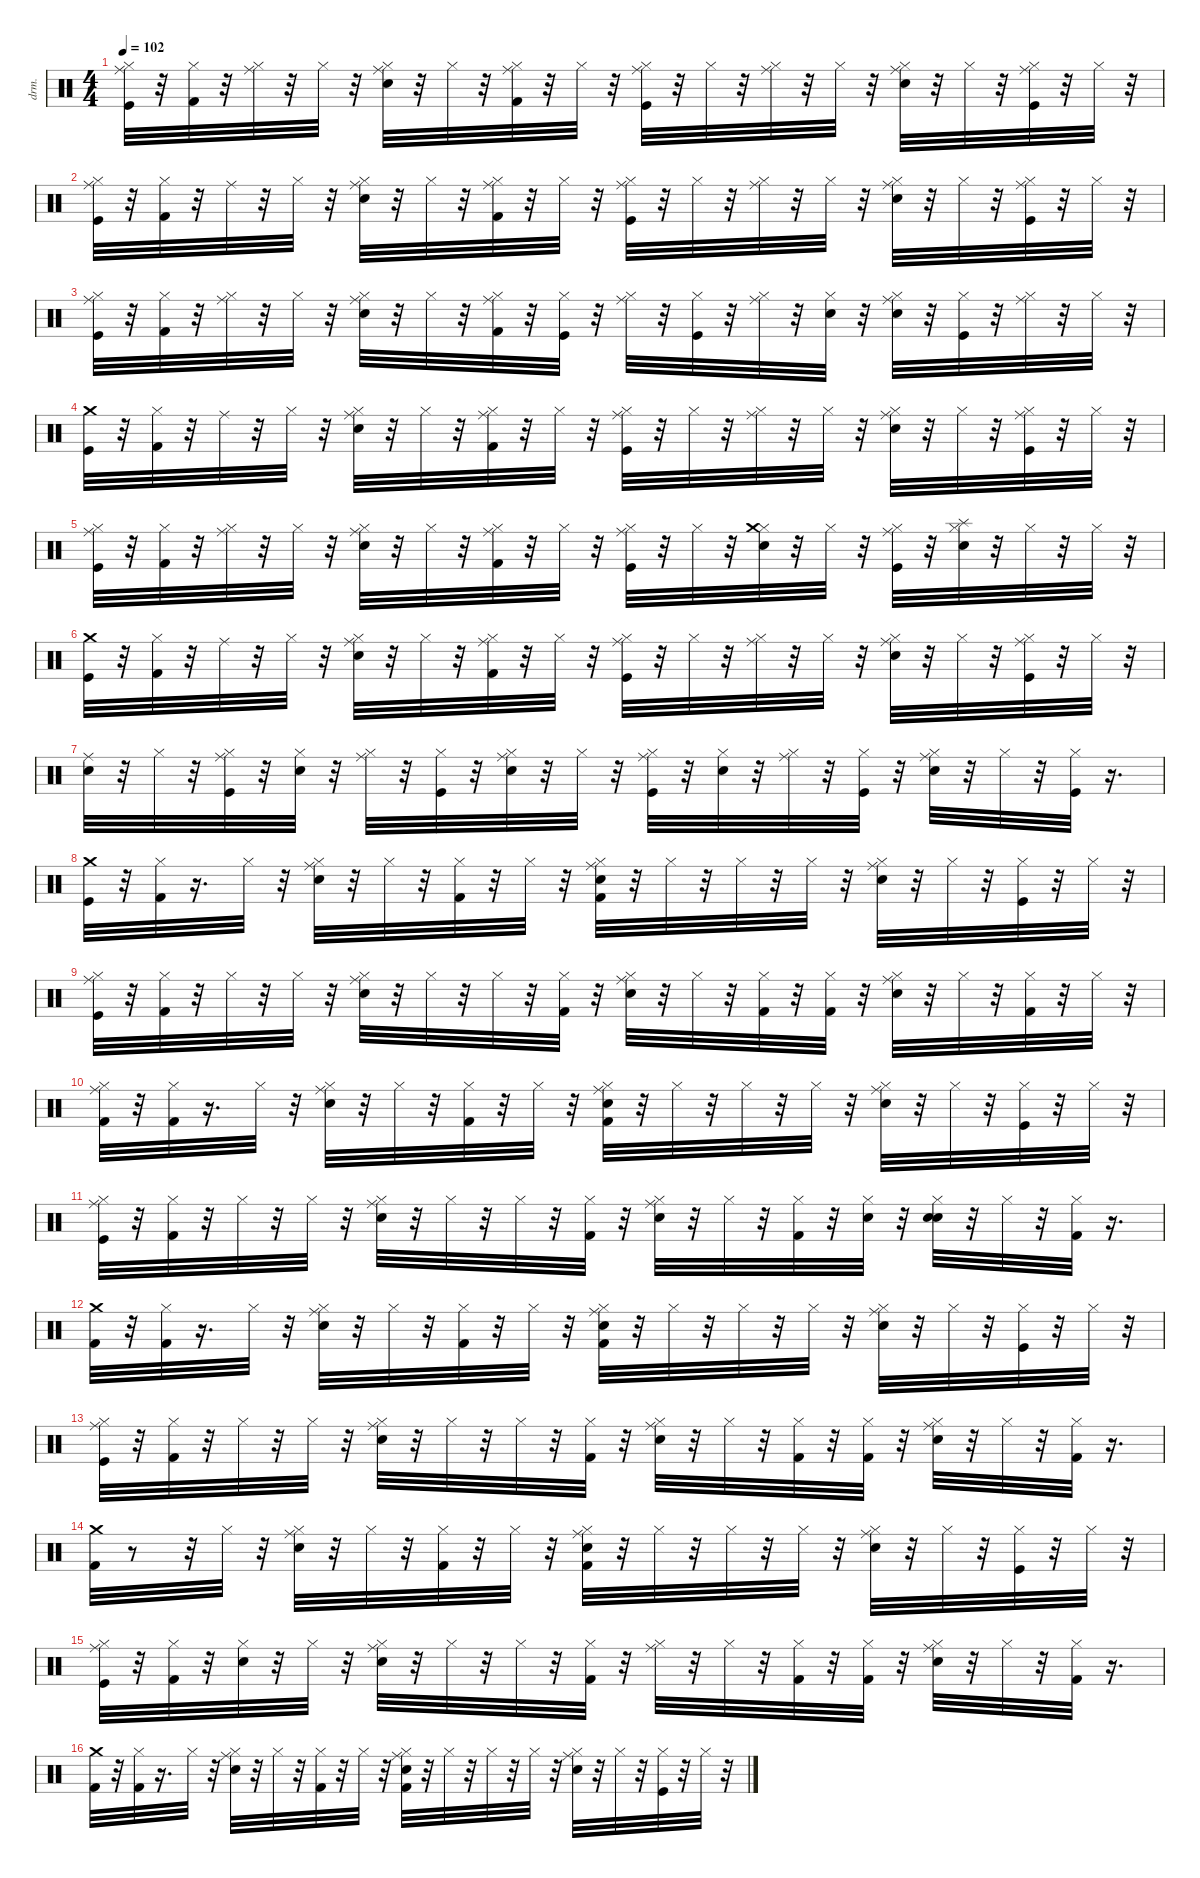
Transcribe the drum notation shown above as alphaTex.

\defaultSystemsLayout 4
\hideDynamics
\bracketExtendMode nobrackets
\otherSystemsTrackNameOrientation horizontal
\track ("Nick Mason / Gary Wallis" "drm.") {instrument percussion}
\staff {score}
\articulation defaults
\ts (4 4)
\tempo 102
\clef neutral
\ks c
("Kick (hit)" "Hi-Hat (closed)" "Ride (middle)").32{dy fff beam Down} r.32{beam Down} ("Hi-Hat (closed)" "Kick (hit) 2").32{dy pp beam Down} r.32{beam Down} ("Hi-Hat (closed)" "Ride (middle)").32{dy ppp beam Down} r.32{beam Down} "Hi-Hat (closed)".32{dy p beam Down} r.32{beam Down} ("Snare (hit) 2" "Hi-Hat (closed)" "Ride (middle)").32{dy ff beam Down} r.32{beam Down} "Hi-Hat (closed)".32{dy ppp beam Down} r.32{beam Down} ("Kick (hit) 2" "Hi-Hat (closed)" "Ride (middle)").32{dy f beam Down} r.32{beam Down} "Hi-Hat (closed)".32{dy ppp beam Down} r.32{beam Down} ("Kick (hit)" "Hi-Hat (closed)" "Ride (middle)").32{dy fff beam Down} r.32{beam Down} "Hi-Hat (closed)".32{dy pp beam Down} r.32{beam Down} ("Hi-Hat (closed)" "Ride (middle)").32{dy ppp beam Down} r.32{beam Down} "Hi-Hat (closed)".32{dy p beam Down} r.32{beam Down} ("Snare (hit) 2" "Hi-Hat (closed)" "Ride (middle)").32{dy ff beam Down} r.32{beam Down} "Hi-Hat (closed)".32{dy ppp beam Down} r.32{beam Down} ("Kick (hit)" "Hi-Hat (closed)" "Ride (middle)").32{dy f beam Down} r.32{beam Down} "Hi-Hat (closed)".32{dy p beam Down} r.32{beam Down} |
("Kick (hit)" "Hi-Hat (closed)" "Ride (middle)").32{dy fff beam Down} r.32{beam Down} ("Hi-Hat (closed)" "Kick (hit) 2").32{dy mp beam Down} r.32{beam Down} "Ride (middle)".32{dy p beam Down} r.32{beam Down} "Hi-Hat (closed)".32{dy pp beam Down} r.32{beam Down} ("Snare (hit) 2" "Hi-Hat (closed)" "Ride (middle)").32{dy ff beam Down} r.32{beam Down} "Hi-Hat (closed)".32{dy pp beam Down} r.32{beam Down} ("Kick (hit) 2" "Hi-Hat (closed)" "Ride (middle)").32{dy f beam Down} r.32{beam Down} "Hi-Hat (closed)".32{dy ppp beam Down} r.32{beam Down} ("Kick (hit)" "Hi-Hat (closed)" "Ride (middle)").32{dy fff beam Down} r.32{beam Down} "Hi-Hat (closed)".32{dy ppp beam Down} r.32{beam Down} ("Hi-Hat (closed)" "Ride (middle)").32{dy pp beam Down} r.32{beam Down} "Hi-Hat (closed)".32{beam Down} r.32{beam Down} ("Snare (hit) 2" "Hi-Hat (closed)" "Ride (middle)").32{dy ff beam Down} r.32{beam Down} "Hi-Hat (closed)".32{dy ppp beam Down} r.32{beam Down} ("Kick (hit)" "Hi-Hat (closed)" "Ride (middle)").32{dy f beam Down} r.32{beam Down} "Hi-Hat (closed)".32{dy mp beam Down} r.32{beam Down} |
("Kick (hit)" "Hi-Hat (closed)" "Ride (middle)").32{dy fff beam Down} r.32{beam Down} ("Hi-Hat (closed)" "Kick (hit) 2").32{dy pp beam Down} r.32{beam Down} ("Hi-Hat (closed)" "Ride (middle)").32{dy ppp beam Down} r.32{beam Down} "Hi-Hat (closed)".32{dy p beam Down} r.32{beam Down} ("Snare (hit) 2" "Hi-Hat (closed)" "Ride (middle)").32{dy ff beam Down} r.32{beam Down} "Hi-Hat (closed)".32{dy ppp beam Down} r.32{beam Down} ("Kick (hit) 2" "Hi-Hat (closed)" "Ride (middle)").32{dy f beam Down} r.32{beam Down} ("Kick (hit)" "Hi-Hat (closed)").32{dy fff beam Down} r.32{beam Down} ("Hi-Hat (closed)" "Ride (middle)").32{dy mf beam Down} r.32{beam Down} ("Kick (hit)" "Hi-Hat (closed)").32{beam Down} r.32{beam Down} ("Hi-Hat (closed)" "Ride (middle)").32{dy ppp beam Down} r.32{beam Down} ("Snare (hit) 2" "Hi-Hat (closed)").32{dy f beam Down} r.32{beam Down} ("Snare (hit) 2" "Hi-Hat (closed)" "Ride (middle)").32{dy ff beam Down} r.32{beam Down} ("Kick (hit)" "Hi-Hat (closed)").32{dy mf beam Down} r.32{beam Down} ("Hi-Hat (closed)" "Ride (middle)").32{dy pp beam Down} r.32{beam Down} "Hi-Hat (closed)".32{dy p beam Down} r.32{beam Down} |
("Kick (hit)" "Crash medium (hit)").32{dy fff beam Down} r.32{beam Down} ("Hi-Hat (closed)" "Kick (hit) 2").32{dy mp beam Down} r.32{beam Down} "Ride (middle)".32{dy p beam Down} r.32{beam Down} "Hi-Hat (closed)".32{dy pp beam Down} r.32{beam Down} ("Snare (hit) 2" "Hi-Hat (closed)" "Ride (middle)").32{dy ff beam Down} r.32{beam Down} "Hi-Hat (closed)".32{dy pp beam Down} r.32{beam Down} ("Kick (hit) 2" "Hi-Hat (closed)" "Ride (middle)").32{dy f beam Down} r.32{beam Down} "Hi-Hat (closed)".32{dy ppp beam Down} r.32{beam Down} ("Kick (hit)" "Hi-Hat (closed)" "Ride (middle)").32{dy fff beam Down} r.32{beam Down} "Hi-Hat (closed)".32{dy ppp beam Down} r.32{beam Down} ("Hi-Hat (closed)" "Ride (middle)").32{dy pp beam Down} r.32{beam Down} "Hi-Hat (closed)".32{beam Down} r.32{beam Down} ("Snare (hit) 2" "Hi-Hat (closed)" "Ride (middle)").32{dy ff beam Down} r.32{beam Down} "Hi-Hat (closed)".32{dy ppp beam Down} r.32{beam Down} ("Kick (hit)" "Hi-Hat (closed)" "Ride (middle)").32{dy f beam Down} r.32{beam Down} "Hi-Hat (closed)".32{dy mp beam Down} r.32{beam Down} |
("Kick (hit)" "Hi-Hat (closed)" "Ride (middle)").32{dy fff beam Down} r.32{beam Down} ("Hi-Hat (closed)" "Kick (hit) 2").32{dy pp beam Down} r.32{beam Down} ("Hi-Hat (closed)" "Ride (middle)").32{dy ppp beam Down} r.32{beam Down} "Hi-Hat (closed)".32{dy p beam Down} r.32{beam Down} ("Snare (hit) 2" "Hi-Hat (closed)" "Ride (middle)").32{dy ff beam Down} r.32{beam Down} "Hi-Hat (closed)".32{dy ppp beam Down} r.32{beam Down} ("Kick (hit) 2" "Hi-Hat (closed)" "Ride (middle)").32{dy f beam Down} r.32{beam Down} "Hi-Hat (closed)".32{dy ppp beam Down} r.32{beam Down} ("Kick (hit)" "Hi-Hat (closed)" "Ride (middle)").32{dy fff beam Down} r.32{beam Down} "Hi-Hat (closed)".32{dy pp beam Down} r.32{beam Down} ("Snare (hit) 2" "Hi-Hat (closed)" "Crash medium (hit)").32{dy ff beam Down} r.32{beam Down} "Hi-Hat (closed)".32{dy p beam Down} r.32{beam Down} ("Kick (hit)" "Hi-Hat (closed)" "Ride (middle)").32{dy f beam Down} r.32{beam Down} ("Snare (hit) 2" "Hi-Hat (closed)" "Splash (hit)").32{dy ff beam Down} r.32{beam Down} "Hi-Hat (closed)".32{dy pp beam Down} r.32{beam Down} "Hi-Hat (closed)".32{dy p beam Down} r.32{beam Down} |
("Kick (hit)" "Crash medium (hit)").32{dy fff beam Down} r.32{beam Down} ("Hi-Hat (closed)" "Kick (hit) 2").32{dy mp beam Down} r.32{beam Down} "Ride (middle)".32{dy p beam Down} r.32{beam Down} "Hi-Hat (closed)".32{dy pp beam Down} r.32{beam Down} ("Snare (hit) 2" "Hi-Hat (closed)" "Ride (middle)").32{dy ff beam Down} r.32{beam Down} "Hi-Hat (closed)".32{dy pp beam Down} r.32{beam Down} ("Kick (hit) 2" "Hi-Hat (closed)" "Ride (middle)").32{dy f beam Down} r.32{beam Down} "Hi-Hat (closed)".32{dy ppp beam Down} r.32{beam Down} ("Kick (hit)" "Hi-Hat (closed)" "Ride (middle)").32{dy fff beam Down} r.32{beam Down} "Hi-Hat (closed)".32{dy ppp beam Down} r.32{beam Down} ("Hi-Hat (closed)" "Ride (middle)").32{dy pp beam Down} r.32{beam Down} "Hi-Hat (closed)".32{beam Down} r.32{beam Down} ("Snare (hit) 2" "Hi-Hat (closed)" "Ride (middle)").32{dy ff beam Down} r.32{beam Down} "Hi-Hat (closed)".32{dy ppp beam Down} r.32{beam Down} ("Kick (hit)" "Hi-Hat (closed)" "Ride (middle)").32{dy f beam Down} r.32{beam Down} "Hi-Hat (closed)".32{dy mp beam Down} r.32{beam Down} |
("Snare (hit) 2" "Ride (middle)").32{dy ff beam Down} r.32{beam Down} "Hi-Hat (closed)".32{dy pp beam Down} r.32{beam Down} ("Kick (hit)" "Hi-Hat (closed)" "Ride (middle)").32{dy fff beam Down} r.32{beam Down} ("Snare (hit) 2" "Hi-Hat (closed)").32{dy ff beam Down} r.32{beam Down} ("Hi-Hat (closed)" "Ride (middle)").32{dy mf beam Down} r.32{beam Down} ("Kick (hit)" "Hi-Hat (closed)").32{dy f beam Down} r.32{beam Down} ("Snare (hit) 2" "Hi-Hat (closed)" "Ride (middle)").32{dy ff beam Down} r.32{beam Down} "Hi-Hat (closed)".32{dy ppp beam Down} r.32{beam Down} ("Kick (hit)" "Hi-Hat (closed)" "Ride (middle)").32{dy fff beam Down} r.32{beam Down} ("Snare (hit) 2" "Hi-Hat (closed)").32{dy ff beam Down} r.32{beam Down} ("Hi-Hat (closed)" "Ride (middle)").32{dy ppp beam Down} r.32{beam Down} ("Kick (hit)" "Hi-Hat (closed)").32{dy ff beam Down} r.32{beam Down} ("Snare (hit) 2" "Hi-Hat (closed)" "Ride (middle)").32{beam Down} r.32{beam Down} "Hi-Hat (closed)".32{dy ppp beam Down} r.32{beam Down} ("Kick (hit)" "Hi-Hat (closed)").32{dy f beam Down} r.16{d beam Down} |
("Kick (hit)" "Crash medium (hit)").32{dy ff beam Down} r.32{beam Down} ("Hi-Hat (closed)" "Kick (hit) 2").32{dy mp beam Down} r.16{d beam Down} "Hi-Hat (closed)".32{dy pp beam Down} r.32{beam Down} ("Snare (hit) 2" "Hi-Hat (closed)" "Ride (middle)").32{dy p beam Down} r.32{beam Down} "Hi-Hat (closed)".32{dy pp beam Down} r.32{beam Down} ("Kick (hit) 2" "Hi-Hat (closed)").32{dy f beam Down} r.32{beam Down} "Hi-Hat (closed)".32{dy ppp beam Down} r.32{beam Down} ("Kick (hit) 2" "Snare (hit) 2" "Hi-Hat (closed)" "Ride (middle)").32{dy f beam Down} r.32{beam Down} "Hi-Hat (closed)".32{dy ppp beam Down} r.32{beam Down} "Hi-Hat (closed)".32{dy pp beam Down} r.32{beam Down} "Hi-Hat (closed)".32{beam Down} r.32{beam Down} ("Snare (hit) 2" "Hi-Hat (closed)" "Ride (middle)").32{dy p beam Down} r.32{beam Down} "Hi-Hat (closed)".32{dy ppp beam Down} r.32{beam Down} ("Kick (hit)" "Hi-Hat (closed)").32{dy f beam Down} r.32{beam Down} "Hi-Hat (closed)".32{dy mp beam Down} r.32{beam Down} |
("Kick (hit)" "Hi-Hat (closed)" "Ride (middle)").32{dy fff beam Down} r.32{beam Down} ("Hi-Hat (closed)" "Kick (hit) 2").32{dy pp beam Down} r.32{beam Down} "Hi-Hat (closed)".32{dy ppp beam Down} r.32{beam Down} "Hi-Hat (closed)".32{dy p beam Down} r.32{beam Down} ("Snare (hit) 2" "Hi-Hat (closed)" "Ride (middle)").32{beam Down} r.32{beam Down} "Hi-Hat (closed)".32{dy ppp beam Down} r.32{beam Down} "Hi-Hat (closed)".32{dy mp beam Down} r.32{beam Down} ("Hi-Hat (closed)" "Kick (hit) 2").32{dy ppp beam Down} r.32{beam Down} ("Snare (hit) 2" "Hi-Hat (closed)" "Ride (middle)").32{dy ff beam Down} r.32{beam Down} "Hi-Hat (closed)".32{dy pp beam Down} r.32{beam Down} ("Hi-Hat (closed)" "Kick (hit) 2").32{dy ppp beam Down} r.32{beam Down} ("Hi-Hat (closed)" "Kick (hit) 2").32{dy p beam Down} r.32{beam Down} ("Snare (hit) 2" "Hi-Hat (closed)" "Ride (middle)").32{beam Down} r.32{beam Down} "Hi-Hat (closed)".32{dy ppp beam Down} r.32{beam Down} ("Kick (hit) 2" "Hi-Hat (closed)").32{dy f beam Down} r.32{beam Down} "Hi-Hat (closed)".32{dy p beam Down} r.32{beam Down} |
("Kick (hit) 2" "Hi-Hat (closed)" "Ride (middle)").32{dy ff beam Down} r.32{beam Down} ("Hi-Hat (closed)" "Kick (hit) 2").32{dy mp beam Down} r.16{d beam Down} "Hi-Hat (closed)".32{dy pp beam Down} r.32{beam Down} ("Snare (hit) 2" "Hi-Hat (closed)" "Ride (middle)").32{dy p beam Down} r.32{beam Down} "Hi-Hat (closed)".32{dy pp beam Down} r.32{beam Down} ("Kick (hit) 2" "Hi-Hat (closed)").32{dy ff beam Down} r.32{beam Down} "Hi-Hat (closed)".32{dy ppp beam Down} r.32{beam Down} ("Kick (hit) 2" "Snare (hit) 2" "Hi-Hat (closed)" "Ride (middle)").32{dy f beam Down} r.32{beam Down} "Hi-Hat (closed)".32{dy ppp beam Down} r.32{beam Down} "Hi-Hat (closed)".32{dy pp beam Down} r.32{beam Down} "Hi-Hat (closed)".32{beam Down} r.32{beam Down} ("Snare (hit) 2" "Hi-Hat (closed)" "Ride (middle)").32{dy p beam Down} r.32{beam Down} "Hi-Hat (closed)".32{dy ppp beam Down} r.32{beam Down} ("Kick (hit)" "Hi-Hat (closed)").32{dy f beam Down} r.32{beam Down} "Hi-Hat (closed)".32{dy mp beam Down} r.32{beam Down} |
("Kick (hit)" "Hi-Hat (closed)" "Ride (middle)").32{dy fff beam Down} r.32{beam Down} ("Hi-Hat (closed)" "Kick (hit) 2").32{dy pp beam Down} r.32{beam Down} "Hi-Hat (closed)".32{dy ppp beam Down} r.32{beam Down} "Hi-Hat (closed)".32{dy p beam Down} r.32{beam Down} ("Snare (hit) 2" "Hi-Hat (closed)" "Ride (middle)").32{beam Down} r.32{beam Down} "Hi-Hat (closed)".32{dy ppp beam Down} r.32{beam Down} "Hi-Hat (closed)".32{dy mp beam Down} r.32{beam Down} ("Hi-Hat (closed)" "Kick (hit) 2").32{dy ppp beam Down} r.32{beam Down} ("Snare (hit) 2" "Hi-Hat (closed)" "Ride (middle)").32{dy ff beam Down} r.32{beam Down} "Hi-Hat (closed)".32{dy pp beam Down} r.32{beam Down} ("Hi-Hat (closed)" "Kick (hit) 2").32{dy ppp beam Down} r.32{beam Down} ("Snare (hit) 2" "Hi-Hat (closed)").32{dy mp beam Down} r.32{beam Down} ("Snare (hit) 2" "Snare (hit) 2" "Hi-Hat (closed)").32{dy p beam Down} r.32{beam Down} "Hi-Hat (closed)".32{dy ppp beam Down} r.32{beam Down} ("Kick (hit) 2" "Hi-Hat (closed)").32{dy f beam Down} r.16{d beam Down} |
("Kick (hit) 2" "Crash medium (hit)").32{dy ff beam Down} r.32{beam Down} ("Hi-Hat (closed)" "Kick (hit) 2").32{dy mp beam Down} r.16{d beam Down} "Hi-Hat (closed)".32{dy pp beam Down} r.32{beam Down} ("Snare (hit) 2" "Hi-Hat (closed)" "Ride (middle)").32{dy p beam Down} r.32{beam Down} "Hi-Hat (closed)".32{dy pp beam Down} r.32{beam Down} ("Kick (hit) 2" "Hi-Hat (closed)").32{dy f beam Down} r.32{beam Down} "Hi-Hat (closed)".32{dy ppp beam Down} r.32{beam Down} ("Kick (hit) 2" "Snare (hit) 2" "Hi-Hat (closed)" "Ride (middle)").32{dy f beam Down} r.32{beam Down} "Hi-Hat (closed)".32{dy ppp beam Down} r.32{beam Down} "Hi-Hat (closed)".32{dy pp beam Down} r.32{beam Down} "Hi-Hat (closed)".32{beam Down} r.32{beam Down} ("Snare (hit) 2" "Hi-Hat (closed)" "Ride (middle)").32{dy p beam Down} r.32{beam Down} "Hi-Hat (closed)".32{dy ppp beam Down} r.32{beam Down} ("Kick (hit)" "Hi-Hat (closed)").32{dy f beam Down} r.32{beam Down} "Hi-Hat (closed)".32{dy mp beam Down} r.32{beam Down} |
("Kick (hit)" "Hi-Hat (closed)" "Ride (middle)").32{dy fff beam Down} r.32{beam Down} ("Hi-Hat (closed)" "Kick (hit) 2").32{dy pp beam Down} r.32{beam Down} "Hi-Hat (closed)".32{dy ppp beam Down} r.32{beam Down} "Hi-Hat (closed)".32{dy p beam Down} r.32{beam Down} ("Snare (hit) 2" "Hi-Hat (closed)" "Ride (middle)").32{beam Down} r.32{beam Down} "Hi-Hat (closed)".32{dy ppp beam Down} r.32{beam Down} "Hi-Hat (closed)".32{dy mp beam Down} r.32{beam Down} ("Hi-Hat (closed)" "Kick (hit) 2").32{dy ppp beam Down} r.32{beam Down} ("Snare (hit) 2" "Hi-Hat (closed)" "Ride (middle)").32{dy ff beam Down} r.32{beam Down} "Hi-Hat (closed)".32{dy pp beam Down} r.32{beam Down} ("Hi-Hat (closed)" "Kick (hit) 2").32{dy ppp beam Down} r.32{beam Down} ("Hi-Hat (closed)" "Kick (hit) 2").32{dy p beam Down} r.32{beam Down} ("Snare (hit) 2" "Hi-Hat (closed)" "Ride (middle)").32{beam Down} r.32{beam Down} "Hi-Hat (closed)".32{dy ppp beam Down} r.32{beam Down} ("Kick (hit) 2" "Hi-Hat (closed)").32{dy f beam Down} r.16{d beam Down} |
("Kick (hit) 2" "Crash medium (hit)").32{dy ff beam Down} r.8{beam Down} r.32{beam Down} "Hi-Hat (closed)".32{dy pp beam Down} r.32{beam Down} ("Snare (hit) 2" "Hi-Hat (closed)" "Ride (middle)").32{dy p beam Down} r.32{beam Down} "Hi-Hat (closed)".32{dy pp beam Down} r.32{beam Down} ("Kick (hit) 2" "Hi-Hat (closed)").32{dy ff beam Down} r.32{beam Down} "Hi-Hat (closed)".32{dy ppp beam Down} r.32{beam Down} ("Kick (hit) 2" "Snare (hit) 2" "Hi-Hat (closed)" "Ride (middle)").32{dy f beam Down} r.32{beam Down} "Hi-Hat (closed)".32{dy ppp beam Down} r.32{beam Down} "Hi-Hat (closed)".32{dy pp beam Down} r.32{beam Down} "Hi-Hat (closed)".32{beam Down} r.32{beam Down} ("Snare (hit) 2" "Hi-Hat (closed)" "Ride (middle)").32{dy p beam Down} r.32{beam Down} "Hi-Hat (closed)".32{dy ppp beam Down} r.32{beam Down} ("Kick (hit)" "Hi-Hat (closed)").32{dy f beam Down} r.32{beam Down} "Hi-Hat (closed)".32{dy mp beam Down} r.32{beam Down} |
("Kick (hit)" "Hi-Hat (closed)" "Ride (middle)").32{dy fff beam Down} r.32{beam Down} ("Hi-Hat (closed)" "Kick (hit) 2").32{dy pp beam Down} r.32{beam Down} ("Snare (hit) 2" "Hi-Hat (closed)").32{dy ff beam Down} r.32{beam Down} "Hi-Hat (closed)".32{dy p beam Down} r.32{beam Down} ("Snare (hit) 2" "Hi-Hat (closed)" "Ride (middle)").32{beam Down} r.32{beam Down} "Hi-Hat (closed)".32{dy ppp beam Down} r.32{beam Down} "Hi-Hat (closed)".32{dy mp beam Down} r.32{beam Down} ("Hi-Hat (closed)" "Kick (hit) 2").32{dy ppp beam Down} r.32{beam Down} ("Hi-Hat (closed)" "Ride (middle)").32{dy mf beam Down} r.32{beam Down} "Hi-Hat (closed)".32{dy pp beam Down} r.32{beam Down} ("Hi-Hat (closed)" "Kick (hit) 2").32{dy ppp beam Down} r.32{beam Down} ("Hi-Hat (closed)" "Kick (hit) 2").32{dy p beam Down} r.32{beam Down} ("Snare (hit) 2" "Hi-Hat (closed)" "Ride (middle)").32{beam Down} r.32{beam Down} "Hi-Hat (closed)".32{dy ppp beam Down} r.32{beam Down} ("Kick (hit) 2" "Hi-Hat (closed)").32{dy f beam Down} r.16{d beam Down} |
("Kick (hit) 2" "Crash medium (hit)").32{dy ff beam Down} r.32{beam Down} ("Hi-Hat (closed)" "Kick (hit) 2").32{dy mp beam Down} r.16{d beam Down} "Hi-Hat (closed)".32{dy pp beam Down} r.32{beam Down} ("Snare (hit) 2" "Hi-Hat (closed)" "Ride (middle)").32{dy p beam Down} r.32{beam Down} "Hi-Hat (closed)".32{dy pp beam Down} r.32{beam Down} ("Kick (hit) 2" "Hi-Hat (closed)").32{dy f beam Down} r.32{beam Down} "Hi-Hat (closed)".32{dy ppp beam Down} r.32{beam Down} ("Kick (hit) 2" "Snare (hit) 2" "Hi-Hat (closed)" "Ride (middle)").32{dy f beam Down} r.32{beam Down} "Hi-Hat (closed)".32{dy ppp beam Down} r.32{beam Down} "Hi-Hat (closed)".32{dy pp beam Down} r.32{beam Down} "Hi-Hat (closed)".32{beam Down} r.32{beam Down} ("Snare (hit) 2" "Hi-Hat (closed)" "Ride (middle)").32{dy p beam Down} r.32{beam Down} "Hi-Hat (closed)".32{dy ppp beam Down} r.32{beam Down} ("Kick (hit)" "Hi-Hat (closed)").32{dy f beam Down} r.32{beam Down} "Hi-Hat (closed)".32{dy mp beam Down} r.32{beam Down}
